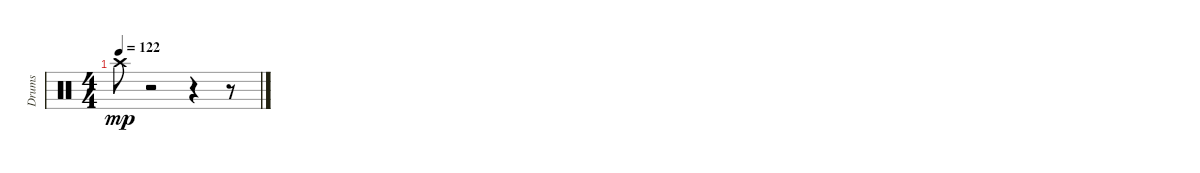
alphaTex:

\track ("Drums" "Drums") {instrument percussion}
\staff
\articulation defaults
\ts (4 4)
\tempo 122
\clef neutral
\ks c "Crash high (hit)".8{dy mp}
r.2 r.4 r.8
